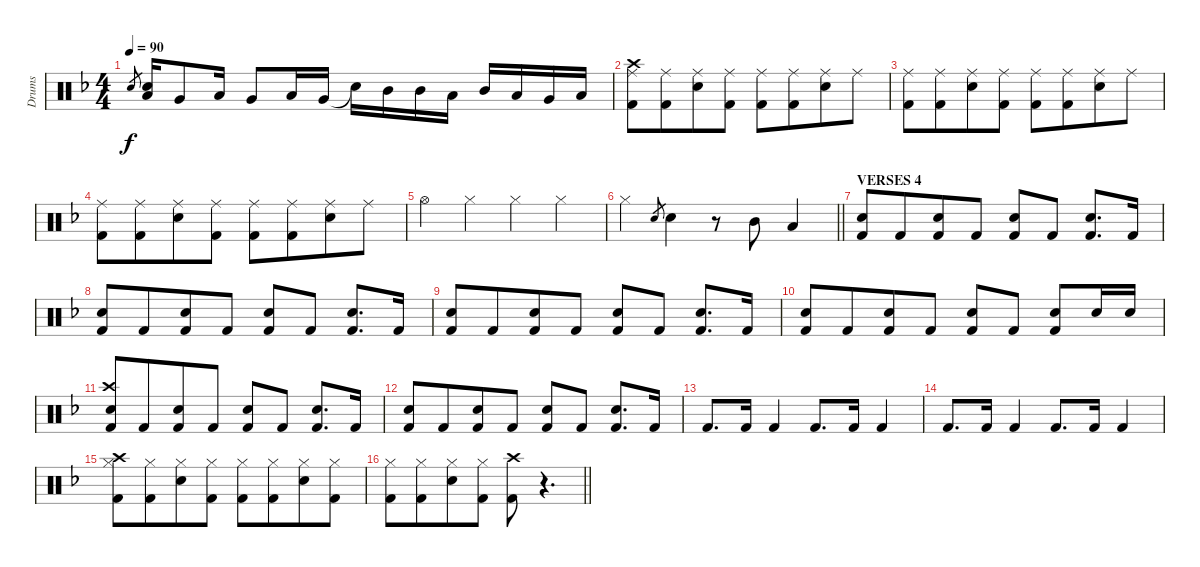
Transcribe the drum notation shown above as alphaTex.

\track ("Drums" "Drums") {instrument percussion}
\staff {score}
\articulation defaults
\ts (4 4)
\tempo 90
\clef neutral
\ks dminor "Electric Snare (hit)".8{gr dy f}
("Low Tom (hit)" "Electric Snare (hit)").16 "Very Low Tom (hit)".8 "Low Tom (hit)".16 "Very Low Tom (hit)".8 "Low Tom (hit)".16 "Very Low Tom (hit)".16 "Snare (hit)"{t}.16 "Mid Tom (hit)".16 "Mid Tom (hit)".16 "Low Tom (hit)".16 "Mid Tom (hit)".16 "Low Tom (hit)".16 "Very Low Tom (hit)".16 "Low Floor Tom (hit)".16 |
("Crash high (hit)" "Ride (middle)" "Kick (hit) 2").8 ("Ride (middle)" "Kick (hit) 2").8{beam merge} ("Ride (middle)" "Electric Snare (hit)").8 ("Ride (middle)" "Kick (hit) 2").8 ("Ride (middle)" "Kick (hit) 2").8 ("Ride (middle)" "Kick (hit) 2").8{beam merge} ("Ride (middle)" "Electric Snare (hit)").8 "Ride (middle)".8 |
("Ride (middle)" "Kick (hit) 2").8 ("Ride (middle)" "Kick (hit) 2").8{beam merge} ("Ride (middle)" "Electric Snare (hit)").8 ("Ride (middle)" "Kick (hit) 2").8 ("Ride (middle)" "Kick (hit) 2").8 ("Ride (middle)" "Kick (hit) 2").8{beam merge} ("Ride (middle)" "Electric Snare (hit)").8 "Ride (middle)".8 |
("Ride (middle)" "Kick (hit) 2").8 ("Ride (middle)" "Kick (hit) 2").8{beam merge} ("Ride (middle)" "Electric Snare (hit)").8 ("Ride (middle)" "Kick (hit) 2").8 ("Ride (middle)" "Kick (hit) 2").8 ("Ride (middle)" "Kick (hit) 2").8{beam merge} ("Ride (middle)" "Electric Snare (hit)").8 "Ride (middle)".8 |
"Hi-Hat (open)".4 "Hi-Hat (closed)".4 "Hi-Hat (closed)".4 "Hi-Hat (closed)".4 |
\barLineRight lightlight "Hi-Hat (closed)".4 "Electric Snare (hit)".8{gr} "Electric Snare (hit)".4
r.8 "Mid Tom (hit)".8 "Low Tom (hit)".4 |
\section ("" "VERSES 4")
("Electric Snare (hit)" "Kick (hit) 2").8 "Kick (hit) 2".8{beam merge} ("Electric Snare (hit)" "Kick (hit) 2").8 "Kick (hit) 2".8 ("Electric Snare (hit)" "Kick (hit) 2").8 "Kick (hit) 2".8 ("Electric Snare (hit)" "Kick (hit) 2").8{d} "Kick (hit) 2".16 |
("Electric Snare (hit)" "Kick (hit) 2").8 "Kick (hit) 2".8{beam merge} ("Electric Snare (hit)" "Kick (hit) 2").8 "Kick (hit) 2".8 ("Electric Snare (hit)" "Kick (hit) 2").8 "Kick (hit) 2".8 ("Electric Snare (hit)" "Kick (hit) 2").8{d} "Kick (hit) 2".16 |
("Electric Snare (hit)" "Kick (hit) 2").8 "Kick (hit) 2".8{beam merge} ("Electric Snare (hit)" "Kick (hit) 2").8 "Kick (hit) 2".8 ("Electric Snare (hit)" "Kick (hit) 2").8 "Kick (hit) 2".8 ("Electric Snare (hit)" "Kick (hit) 2").8{d} "Kick (hit) 2".16 |
("Electric Snare (hit)" "Kick (hit) 2").8 "Kick (hit) 2".8{beam merge} ("Electric Snare (hit)" "Kick (hit) 2").8 "Kick (hit) 2".8 ("Electric Snare (hit)" "Kick (hit) 2").8 "Kick (hit) 2".8 ("Electric Snare (hit)" "Kick (hit) 2").8 "Electric Snare (hit)".16 "Electric Snare (hit)".16 |
("Crash high (hit)" "Electric Snare (hit)" "Kick (hit) 2").8 "Kick (hit) 2".8{beam merge} ("Electric Snare (hit)" "Kick (hit) 2").8 "Kick (hit) 2".8 ("Electric Snare (hit)" "Kick (hit) 2").8 "Kick (hit) 2".8 ("Electric Snare (hit)" "Kick (hit) 2").8{d} "Kick (hit) 2".16 |
("Electric Snare (hit)" "Kick (hit) 2").8 "Kick (hit) 2".8{beam merge} ("Electric Snare (hit)" "Kick (hit) 2").8 "Kick (hit) 2".8 ("Electric Snare (hit)" "Kick (hit) 2").8 "Kick (hit) 2".8 ("Electric Snare (hit)" "Kick (hit) 2").8{d} "Kick (hit) 2".16 |
"Kick (hit) 2".8{d} "Kick (hit) 2".16 "Kick (hit) 2".4 "Kick (hit) 2".8{d} "Kick (hit) 2".16 "Kick (hit) 2".4 |
"Kick (hit) 2".8{d} "Kick (hit) 2".16 "Kick (hit) 2".4 "Kick (hit) 2".8{d} "Kick (hit) 2".16 "Kick (hit) 2".4 |
("Crash high (hit)" "Hi-Hat (closed)" "Kick (hit) 2").8 ("Hi-Hat (closed)" "Kick (hit) 2").8{beam merge} ("Hi-Hat (closed)" "Electric Snare (hit)").8 ("Hi-Hat (closed)" "Kick (hit) 2").8 ("Hi-Hat (closed)" "Kick (hit) 2").8 ("Hi-Hat (closed)" "Kick (hit) 2").8{beam merge} ("Hi-Hat (closed)" "Electric Snare (hit)").8 ("Hi-Hat (closed)" "Kick (hit) 2").8 |
\barLineRight lightlight
("Hi-Hat (closed)" "Kick (hit) 2").8 ("Hi-Hat (closed)" "Kick (hit) 2").8{beam merge} ("Hi-Hat (closed)" "Electric Snare (hit)").8 ("Hi-Hat (closed)" "Kick (hit) 2").8 ("Crash high (hit)" "Kick (hit) 2").8 r.4{d}
